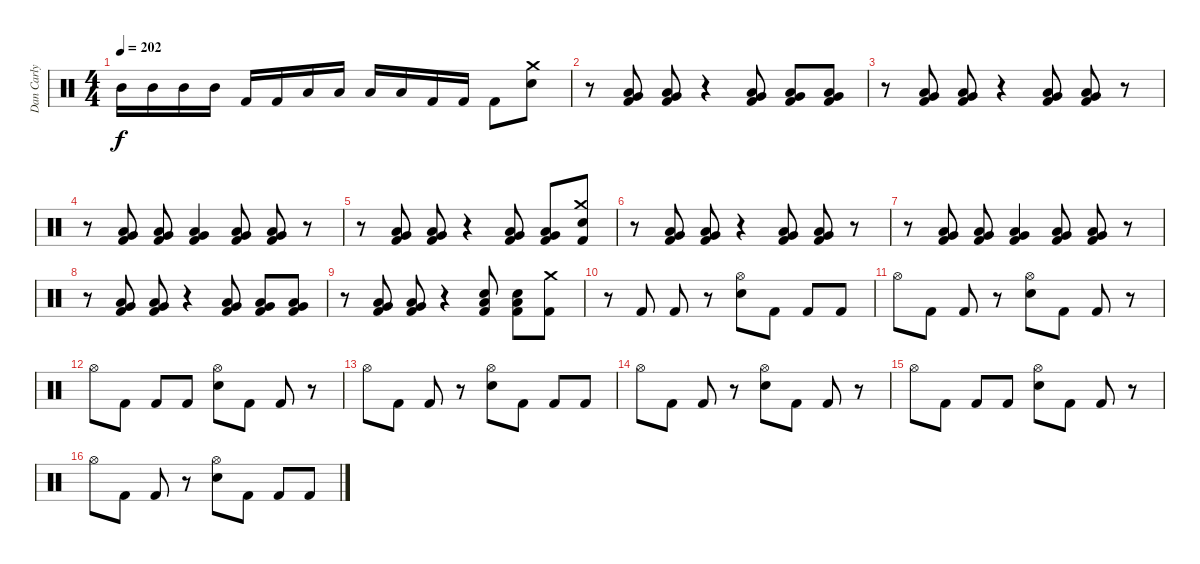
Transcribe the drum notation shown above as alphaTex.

\track ("Dan Carly" "Dan Carly") {instrument percussion}
\staff {score}
\articulation defaults
\ts (4 4)
\tempo 202
\clef neutral
\ks c "Mid Tom (hit)".16{dy f} "Mid Tom (hit)".16 "Mid Tom (hit)".16 "Mid Tom (hit)".16 "Kick (hit) 2".16 "Kick (hit) 2".16 "Low Tom (hit)".16 "Low Tom (hit)".16 "Low Tom (hit)".16 "Low Tom (hit)".16 "Kick (hit) 2".16 "Kick (hit) 2".16 "Kick (hit) 2".8
("Crash medium (hit)" "Electric Snare (hit)").8 |
r.8 ("Very Low Tom (hit)" "Low Floor Tom (hit)" "Kick (hit) 2").8 ("Very Low Tom (hit)" "Low Floor Tom (hit)" "Kick (hit) 2").8 r.4 ("Very Low Tom (hit)" "Low Floor Tom (hit)" "Kick (hit) 2").8 ("Very Low Tom (hit)" "Low Floor Tom (hit)" "Kick (hit) 2").8 ("Very Low Tom (hit)" "Low Floor Tom (hit)" "Kick (hit) 2").8 |
r.8 ("Very Low Tom (hit)" "Low Floor Tom (hit)" "Kick (hit) 2").8 ("Very Low Tom (hit)" "Low Floor Tom (hit)" "Kick (hit) 2").8 r.4 ("Very Low Tom (hit)" "Low Floor Tom (hit)" "Kick (hit) 2").8 ("Very Low Tom (hit)" "Low Floor Tom (hit)" "Kick (hit) 2").8 r.8 |
r.8 ("Very Low Tom (hit)" "Low Floor Tom (hit)" "Kick (hit) 2").8 ("Very Low Tom (hit)" "Low Floor Tom (hit)" "Kick (hit) 2").8 ("Very Low Tom (hit)" "Low Floor Tom (hit)" "Kick (hit) 2").4 ("Very Low Tom (hit)" "Low Floor Tom (hit)" "Kick (hit) 2").8 ("Very Low Tom (hit)" "Low Floor Tom (hit)" "Kick (hit) 2").8 r.8 |
r.8 ("Very Low Tom (hit)" "Low Floor Tom (hit)" "Kick (hit) 2").8 ("Very Low Tom (hit)" "Low Floor Tom (hit)" "Kick (hit) 2").8 r.4 ("Very Low Tom (hit)" "Low Floor Tom (hit)" "Kick (hit) 2").8 ("Very Low Tom (hit)" "Low Floor Tom (hit)" "Kick (hit) 2").8 ("Crash medium (hit)" "Electric Snare (hit)" "Kick (hit) 2").8 |
r.8 ("Very Low Tom (hit)" "Low Floor Tom (hit)" "Kick (hit) 2").8 ("Very Low Tom (hit)" "Low Floor Tom (hit)" "Kick (hit) 2").8 r.4 ("Very Low Tom (hit)" "Low Floor Tom (hit)" "Kick (hit) 2").8 ("Very Low Tom (hit)" "Low Floor Tom (hit)" "Kick (hit) 2").8 r.8 |
r.8 ("Very Low Tom (hit)" "Low Floor Tom (hit)" "Kick (hit) 2").8 ("Very Low Tom (hit)" "Low Floor Tom (hit)" "Kick (hit) 2").8 ("Very Low Tom (hit)" "Low Floor Tom (hit)" "Kick (hit) 2").4 ("Very Low Tom (hit)" "Low Floor Tom (hit)" "Kick (hit) 2").8 ("Very Low Tom (hit)" "Low Floor Tom (hit)" "Kick (hit) 2").8 r.8 |
r.8 ("Very Low Tom (hit)" "Low Floor Tom (hit)" "Kick (hit) 2").8 ("Very Low Tom (hit)" "Low Floor Tom (hit)" "Kick (hit) 2").8 r.4 ("Very Low Tom (hit)" "Low Floor Tom (hit)" "Kick (hit) 2").8 ("Very Low Tom (hit)" "Low Floor Tom (hit)" "Kick (hit) 2").8 ("Very Low Tom (hit)" "Low Floor Tom (hit)" "Kick (hit) 2").8 |
r.8 ("Very Low Tom (hit)" "Low Floor Tom (hit)" "Kick (hit) 2").8 ("Very Low Tom (hit)" "Low Floor Tom (hit)" "Kick (hit) 2").8 r.4 ("Electric Snare (hit)" "Low Floor Tom (hit)" "Kick (hit) 2").8 ("Electric Snare (hit)" "Low Floor Tom (hit)" "Kick (hit) 2").8 ("Crash medium (hit)" "Kick (hit) 2").8 |
r.8 "Kick (hit) 2".8 "Kick (hit) 2".8 r.8 ("Hi-Hat (open)" "Electric Snare (hit)").8 "Kick (hit) 2".8 "Kick (hit) 2".8 "Kick (hit) 2".8 |
"Hi-Hat (open)".8 "Kick (hit) 2".8 "Kick (hit) 2".8 r.8 ("Hi-Hat (open)" "Electric Snare (hit)").8 "Kick (hit) 2".8 "Kick (hit) 2".8 r.8 |
"Hi-Hat (open)".8 "Kick (hit) 2".8 "Kick (hit) 2".8 "Kick (hit) 2".8 ("Hi-Hat (open)" "Electric Snare (hit)").8 "Kick (hit) 2".8 "Kick (hit) 2".8 r.8 |
"Hi-Hat (open)".8 "Kick (hit) 2".8 "Kick (hit) 2".8 r.8 ("Hi-Hat (open)" "Electric Snare (hit)").8 "Kick (hit) 2".8 "Kick (hit) 2".8 "Kick (hit) 2".8 |
"Hi-Hat (open)".8 "Kick (hit) 2".8 "Kick (hit) 2".8 r.8 ("Hi-Hat (open)" "Electric Snare (hit)").8 "Kick (hit) 2".8 "Kick (hit) 2".8 r.8 |
"Hi-Hat (open)".8 "Kick (hit) 2".8 "Kick (hit) 2".8 "Kick (hit) 2".8 ("Hi-Hat (open)" "Electric Snare (hit)").8 "Kick (hit) 2".8 "Kick (hit) 2".8 r.8 |
"Hi-Hat (open)".8 "Kick (hit) 2".8 "Kick (hit) 2".8 r.8 ("Hi-Hat (open)" "Electric Snare (hit)").8 "Kick (hit) 2".8 "Kick (hit) 2".8 "Kick (hit) 2".8
